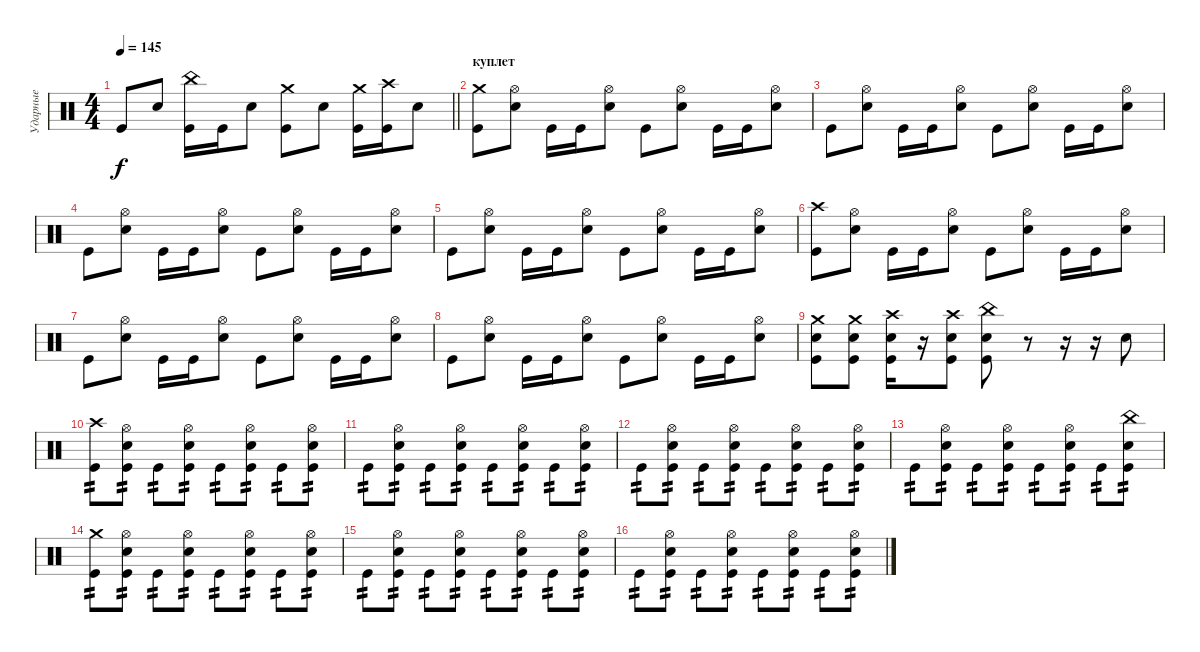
\track ("Ударные" "Ударные") {instrument percussion}
\staff {score}
\articulation defaults
\ts (4 4)
\tempo 145
\clef neutral
\barLineRight lightlight
\ks c "Kick (hit)".8{dy f} "Electric Snare (hit)".8
("China (hit)" "Kick (hit)").16 "Kick (hit)".16 "Electric Snare (hit)".8 ("Crash medium (hit)" "Kick (hit)").8 "Electric Snare (hit)".8 ("Crash medium (hit)" "Kick (hit)").16 ("Crash high (hit)" "Kick (hit)").16 "Electric Snare (hit)".8 |
\section ("" "куплет")
("Crash medium (hit)" "Kick (hit)").8 ("Hi-Hat (open)" "Electric Snare (hit)").8 "Kick (hit)".16 "Kick (hit)".16 ("Hi-Hat (open)" "Electric Snare (hit)").8 "Kick (hit)".8 ("Hi-Hat (open)" "Electric Snare (hit)").8 "Kick (hit)".16 "Kick (hit)".16 ("Hi-Hat (open)" "Electric Snare (hit)").8 |
"Kick (hit)".8 ("Hi-Hat (open)" "Electric Snare (hit)").8 "Kick (hit)".16 "Kick (hit)".16 ("Hi-Hat (open)" "Electric Snare (hit)").8 "Kick (hit)".8 ("Hi-Hat (open)" "Electric Snare (hit)").8 "Kick (hit)".16 "Kick (hit)".16 ("Hi-Hat (open)" "Electric Snare (hit)").8 |
"Kick (hit)".8 ("Hi-Hat (open)" "Electric Snare (hit)").8 "Kick (hit)".16 "Kick (hit)".16 ("Hi-Hat (open)" "Electric Snare (hit)").8 "Kick (hit)".8 ("Hi-Hat (open)" "Electric Snare (hit)").8 "Kick (hit)".16 "Kick (hit)".16 ("Hi-Hat (open)" "Electric Snare (hit)").8 |
"Kick (hit)".8 ("Hi-Hat (open)" "Electric Snare (hit)").8 "Kick (hit)".16 "Kick (hit)".16 ("Hi-Hat (open)" "Electric Snare (hit)").8 "Kick (hit)".8 ("Hi-Hat (open)" "Electric Snare (hit)").8 "Kick (hit)".16 "Kick (hit)".16 ("Hi-Hat (open)" "Electric Snare (hit)").8 |
("Crash high (hit)" "Kick (hit)").8 ("Hi-Hat (open)" "Electric Snare (hit)").8 "Kick (hit)".16 "Kick (hit)".16 ("Hi-Hat (open)" "Electric Snare (hit)").8 "Kick (hit)".8 ("Hi-Hat (open)" "Electric Snare (hit)").8 "Kick (hit)".16 "Kick (hit)".16 ("Hi-Hat (open)" "Electric Snare (hit)").8 |
"Kick (hit)".8 ("Hi-Hat (open)" "Electric Snare (hit)").8 "Kick (hit)".16 "Kick (hit)".16 ("Hi-Hat (open)" "Electric Snare (hit)").8 "Kick (hit)".8 ("Hi-Hat (open)" "Electric Snare (hit)").8 "Kick (hit)".16 "Kick (hit)".16 ("Hi-Hat (open)" "Electric Snare (hit)").8 |
"Kick (hit)".8 ("Hi-Hat (open)" "Electric Snare (hit)").8 "Kick (hit)".16 "Kick (hit)".16 ("Hi-Hat (open)" "Electric Snare (hit)").8 "Kick (hit)".8 ("Hi-Hat (open)" "Electric Snare (hit)").8 "Kick (hit)".16 "Kick (hit)".16 ("Hi-Hat (open)" "Electric Snare (hit)").8 |
("Crash medium (hit)" "Electric Snare (hit)" "Kick (hit)").8 ("Crash medium (hit)" "Electric Snare (hit)" "Kick (hit)").8 ("Crash high (hit)" "Electric Snare (hit)" "Kick (hit)").16 r.16 ("Crash high (hit)" "Electric Snare (hit)" "Kick (hit)").8 ("China (hit)" "Electric Snare (hit)" "Kick (hit)").8 r.8 r.16 r.16 "Snare (hit)".8 |
("Crash high (hit)" "Kick (hit)").8{tp 2} ("Hi-Hat (open)" "Electric Snare (hit)" "Kick (hit)").8{tp 2} "Kick (hit)".8{tp 2} ("Hi-Hat (open)" "Electric Snare (hit)" "Kick (hit)").8{tp 2} "Kick (hit)".8{tp 2} ("Hi-Hat (open)" "Electric Snare (hit)" "Kick (hit)").8{tp 2} "Kick (hit)".8{tp 2} ("Hi-Hat (open)" "Electric Snare (hit)" "Kick (hit)").8{tp 2} |
"Kick (hit)".8{tp 2} ("Hi-Hat (open)" "Electric Snare (hit)" "Kick (hit)").8{tp 2} "Kick (hit)".8{tp 2} ("Hi-Hat (open)" "Electric Snare (hit)" "Kick (hit)").8{tp 2} "Kick (hit)".8{tp 2} ("Hi-Hat (open)" "Electric Snare (hit)" "Kick (hit)").8{tp 2} "Kick (hit)".8{tp 2} ("Hi-Hat (open)" "Electric Snare (hit)" "Kick (hit)").8{tp 2} |
"Kick (hit)".8{tp 2} ("Hi-Hat (open)" "Electric Snare (hit)" "Kick (hit)").8{tp 2} "Kick (hit)".8{tp 2} ("Hi-Hat (open)" "Electric Snare (hit)" "Kick (hit)").8{tp 2} "Kick (hit)".8{tp 2} ("Hi-Hat (open)" "Electric Snare (hit)" "Kick (hit)").8{tp 2} "Kick (hit)".8{tp 2} ("Hi-Hat (open)" "Electric Snare (hit)" "Kick (hit)").8{tp 2} |
"Kick (hit)".8{tp 2} ("Hi-Hat (open)" "Electric Snare (hit)" "Kick (hit)").8{tp 2} "Kick (hit)".8{tp 2} ("Hi-Hat (open)" "Electric Snare (hit)" "Kick (hit)").8{tp 2} "Kick (hit)".8{tp 2} ("Hi-Hat (open)" "Electric Snare (hit)" "Kick (hit)").8{tp 2} "Kick (hit)".8{tp 2} ("China (hit)" "Electric Snare (hit)" "Kick (hit)").8{tp 2} |
("Crash medium (hit)" "Kick (hit)").8{tp 2} ("Hi-Hat (open)" "Electric Snare (hit)" "Kick (hit)").8{tp 2} "Kick (hit)".8{tp 2} ("Hi-Hat (open)" "Electric Snare (hit)" "Kick (hit)").8{tp 2} "Kick (hit)".8{tp 2} ("Hi-Hat (open)" "Electric Snare (hit)" "Kick (hit)").8{tp 2} "Kick (hit)".8{tp 2} ("Hi-Hat (open)" "Electric Snare (hit)" "Kick (hit)").8{tp 2} |
"Kick (hit)".8{tp 2} ("Hi-Hat (open)" "Electric Snare (hit)" "Kick (hit)").8{tp 2} "Kick (hit)".8{tp 2} ("Hi-Hat (open)" "Electric Snare (hit)" "Kick (hit)").8{tp 2} "Kick (hit)".8{tp 2} ("Hi-Hat (open)" "Electric Snare (hit)" "Kick (hit)").8{tp 2} "Kick (hit)".8{tp 2} ("Hi-Hat (open)" "Electric Snare (hit)" "Kick (hit)").8{tp 2} |
"Kick (hit)".8{tp 2} ("Hi-Hat (open)" "Electric Snare (hit)" "Kick (hit)").8{tp 2} "Kick (hit)".8{tp 2} ("Hi-Hat (open)" "Electric Snare (hit)" "Kick (hit)").8{tp 2} "Kick (hit)".8{tp 2} ("Hi-Hat (open)" "Electric Snare (hit)" "Kick (hit)").8{tp 2} "Kick (hit)".8{tp 2} ("Hi-Hat (open)" "Electric Snare (hit)" "Kick (hit)").8{tp 2}
